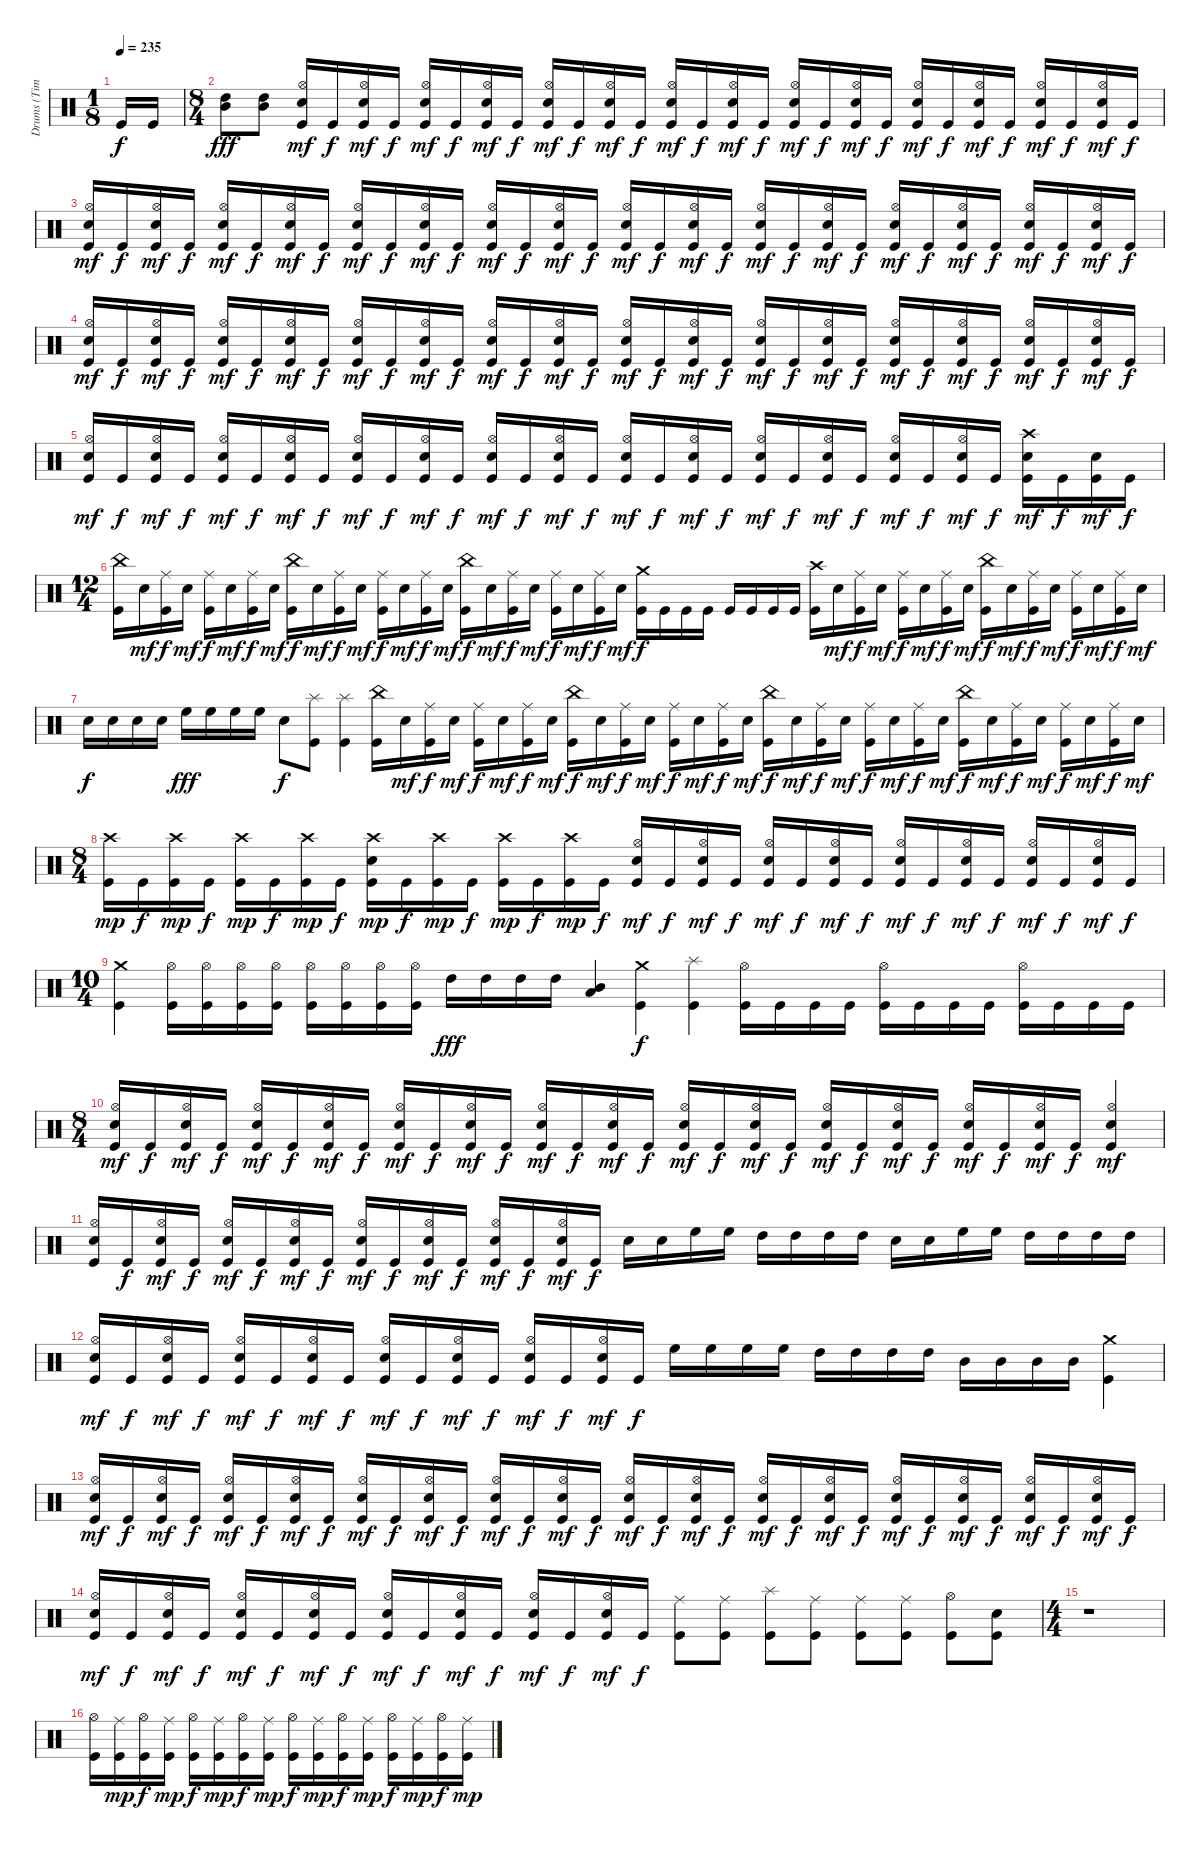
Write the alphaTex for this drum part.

\track ("Drums (Tim Yeung)" "Drums (Tim") {instrument percussion}
\staff {score}
\articulation defaults
\ts (1 8)
\tempo 235
\clef neutral
\ks c "Kick (hit)".16{dy f} "Kick (hit)".16
|
\ts (8 4)
("High Tom (hit)" "Mid Tom (hit)").8{dy fff} ("High Tom (hit)" "Mid Tom (hit)").8 ("Hi-Hat (open)" "Electric Snare (hit)" "Kick (hit)").16{dy mf} "Kick (hit)".16{dy f} ("Hi-Hat (open)" "Electric Snare (hit)" "Kick (hit)").16{dy mf} "Kick (hit)".16{dy f} ("Hi-Hat (open)" "Electric Snare (hit)" "Kick (hit)").16{dy mf} "Kick (hit)".16{dy f} ("Hi-Hat (open)" "Electric Snare (hit)" "Kick (hit)").16{dy mf} "Kick (hit)".16{dy f} ("Hi-Hat (open)" "Electric Snare (hit)" "Kick (hit)").16{dy mf} "Kick (hit)".16{dy f} ("Hi-Hat (open)" "Electric Snare (hit)" "Kick (hit)").16{dy mf} "Kick (hit)".16{dy f} ("Hi-Hat (open)" "Electric Snare (hit)" "Kick (hit)").16{dy mf} "Kick (hit)".16{dy f} ("Hi-Hat (open)" "Electric Snare (hit)" "Kick (hit)").16{dy mf} "Kick (hit)".16{dy f} ("Hi-Hat (open)" "Electric Snare (hit)" "Kick (hit)").16{dy mf} "Kick (hit)".16{dy f} ("Hi-Hat (open)" "Electric Snare (hit)" "Kick (hit)").16{dy mf} "Kick (hit)".16{dy f} ("Hi-Hat (open)" "Electric Snare (hit)" "Kick (hit)").16{dy mf} "Kick (hit)".16{dy f} ("Hi-Hat (open)" "Electric Snare (hit)" "Kick (hit)").16{dy mf} "Kick (hit)".16{dy f} ("Hi-Hat (open)" "Electric Snare (hit)" "Kick (hit)").16{dy mf} "Kick (hit)".16{dy f} ("Hi-Hat (open)" "Electric Snare (hit)" "Kick (hit)").16{dy mf} "Kick (hit)".16{dy f} |
("Hi-Hat (open)" "Electric Snare (hit)" "Kick (hit)").16{dy mf} "Kick (hit)".16{dy f} ("Hi-Hat (open)" "Electric Snare (hit)" "Kick (hit)").16{dy mf} "Kick (hit)".16{dy f} ("Hi-Hat (open)" "Electric Snare (hit)" "Kick (hit)").16{dy mf} "Kick (hit)".16{dy f} ("Hi-Hat (open)" "Electric Snare (hit)" "Kick (hit)").16{dy mf} "Kick (hit)".16{dy f} ("Hi-Hat (open)" "Electric Snare (hit)" "Kick (hit)").16{dy mf} "Kick (hit)".16{dy f} ("Hi-Hat (open)" "Electric Snare (hit)" "Kick (hit)").16{dy mf} "Kick (hit)".16{dy f} ("Hi-Hat (open)" "Electric Snare (hit)" "Kick (hit)").16{dy mf} "Kick (hit)".16{dy f} ("Hi-Hat (open)" "Electric Snare (hit)" "Kick (hit)").16{dy mf} "Kick (hit)".16{dy f} ("Hi-Hat (open)" "Electric Snare (hit)" "Kick (hit)").16{dy mf} "Kick (hit)".16{dy f} ("Hi-Hat (open)" "Electric Snare (hit)" "Kick (hit)").16{dy mf} "Kick (hit)".16{dy f} ("Hi-Hat (open)" "Electric Snare (hit)" "Kick (hit)").16{dy mf} "Kick (hit)".16{dy f} ("Hi-Hat (open)" "Electric Snare (hit)" "Kick (hit)").16{dy mf} "Kick (hit)".16{dy f} ("Hi-Hat (open)" "Electric Snare (hit)" "Kick (hit)").16{dy mf} "Kick (hit)".16{dy f} ("Hi-Hat (open)" "Electric Snare (hit)" "Kick (hit)").16{dy mf} "Kick (hit)".16{dy f} ("Hi-Hat (open)" "Electric Snare (hit)" "Kick (hit)").16{dy mf} "Kick (hit)".16{dy f} ("Hi-Hat (open)" "Electric Snare (hit)" "Kick (hit)").16{dy mf} "Kick (hit)".16{dy f} |
("Hi-Hat (open)" "Electric Snare (hit)" "Kick (hit)").16{dy mf} "Kick (hit)".16{dy f} ("Hi-Hat (open)" "Electric Snare (hit)" "Kick (hit)").16{dy mf} "Kick (hit)".16{dy f} ("Hi-Hat (open)" "Electric Snare (hit)" "Kick (hit)").16{dy mf} "Kick (hit)".16{dy f} ("Hi-Hat (open)" "Electric Snare (hit)" "Kick (hit)").16{dy mf} "Kick (hit)".16{dy f} ("Hi-Hat (open)" "Electric Snare (hit)" "Kick (hit)").16{dy mf} "Kick (hit)".16{dy f} ("Hi-Hat (open)" "Electric Snare (hit)" "Kick (hit)").16{dy mf} "Kick (hit)".16{dy f} ("Hi-Hat (open)" "Electric Snare (hit)" "Kick (hit)").16{dy mf} "Kick (hit)".16{dy f} ("Hi-Hat (open)" "Electric Snare (hit)" "Kick (hit)").16{dy mf} "Kick (hit)".16{dy f} ("Hi-Hat (open)" "Electric Snare (hit)" "Kick (hit)").16{dy mf} "Kick (hit)".16{dy f} ("Hi-Hat (open)" "Electric Snare (hit)" "Kick (hit)").16{dy mf} "Kick (hit)".16{dy f} ("Hi-Hat (open)" "Electric Snare (hit)" "Kick (hit)").16{dy mf} "Kick (hit)".16{dy f} ("Hi-Hat (open)" "Electric Snare (hit)" "Kick (hit)").16{dy mf} "Kick (hit)".16{dy f} ("Hi-Hat (open)" "Electric Snare (hit)" "Kick (hit)").16{dy mf} "Kick (hit)".16{dy f} ("Hi-Hat (open)" "Electric Snare (hit)" "Kick (hit)").16{dy mf} "Kick (hit)".16{dy f} ("Hi-Hat (open)" "Electric Snare (hit)" "Kick (hit)").16{dy mf} "Kick (hit)".16{dy f} ("Hi-Hat (open)" "Electric Snare (hit)" "Kick (hit)").16{dy mf} "Kick (hit)".16{dy f} |
("Hi-Hat (open)" "Electric Snare (hit)" "Kick (hit)").16{dy mf} "Kick (hit)".16{dy f} ("Hi-Hat (open)" "Electric Snare (hit)" "Kick (hit)").16{dy mf} "Kick (hit)".16{dy f} ("Hi-Hat (open)" "Electric Snare (hit)" "Kick (hit)").16{dy mf} "Kick (hit)".16{dy f} ("Hi-Hat (open)" "Electric Snare (hit)" "Kick (hit)").16{dy mf} "Kick (hit)".16{dy f} ("Hi-Hat (open)" "Electric Snare (hit)" "Kick (hit)").16{dy mf} "Kick (hit)".16{dy f} ("Hi-Hat (open)" "Electric Snare (hit)" "Kick (hit)").16{dy mf} "Kick (hit)".16{dy f} ("Hi-Hat (open)" "Electric Snare (hit)" "Kick (hit)").16{dy mf} "Kick (hit)".16{dy f} ("Hi-Hat (open)" "Electric Snare (hit)" "Kick (hit)").16{dy mf} "Kick (hit)".16{dy f} ("Hi-Hat (open)" "Electric Snare (hit)" "Kick (hit)").16{dy mf} "Kick (hit)".16{dy f} ("Hi-Hat (open)" "Electric Snare (hit)" "Kick (hit)").16{dy mf} "Kick (hit)".16{dy f} ("Hi-Hat (open)" "Electric Snare (hit)" "Kick (hit)").16{dy mf} "Kick (hit)".16{dy f} ("Hi-Hat (open)" "Electric Snare (hit)" "Kick (hit)").16{dy mf} "Kick (hit)".16{dy f} ("Hi-Hat (open)" "Electric Snare (hit)" "Kick (hit)").16{dy mf} "Kick (hit)".16{dy f} ("Hi-Hat (open)" "Electric Snare (hit)" "Kick (hit)").16{dy mf} "Kick (hit)".16{dy f} ("Crash high (hit)" "Electric Snare (hit)" "Kick (hit)").16{dy mf} "Kick (hit)".16{dy f} ("Electric Snare (hit)" "Kick (hit)").16{dy mf} "Kick (hit)".16{dy f} |
\ts (12 4)
("China (hit)" "Kick (hit)").16 "Electric Snare (hit)".16{dy mf} ("Ride (middle)" "Kick (hit)").16{dy f} "Electric Snare (hit)".16{dy mf} ("Ride (middle)" "Kick (hit)").16{dy f} "Electric Snare (hit)".16{dy mf} ("Ride (middle)" "Kick (hit)").16{dy f} "Electric Snare (hit)".16{dy mf} ("China (hit)" "Kick (hit)").16{dy f} "Electric Snare (hit)".16{dy mf} ("Ride (middle)" "Kick (hit)").16{dy f} "Electric Snare (hit)".16{dy mf} ("Ride (middle)" "Kick (hit)").16{dy f} "Electric Snare (hit)".16{dy mf} ("Ride (middle)" "Kick (hit)").16{dy f} "Electric Snare (hit)".16{dy mf} ("China (hit)" "Kick (hit)").16{dy f} "Electric Snare (hit)".16{dy mf} ("Ride (middle)" "Kick (hit)").16{dy f} "Electric Snare (hit)".16{dy mf} ("Ride (middle)" "Kick (hit)").16{dy f} "Electric Snare (hit)".16{dy mf} ("Ride (middle)" "Kick (hit)").16{dy f} "Electric Snare (hit)".16{dy mf} ("Crash medium (hit)" "Kick (hit)").16{dy f} "Kick (hit)".16 "Kick (hit)".16 "Kick (hit)".16 "Kick (hit)".16 "Kick (hit)".16 "Kick (hit)".16 "Kick (hit)".16 ("Crash high (hit)" "Kick (hit)").16 "Electric Snare (hit)".16{dy mf} ("Ride (middle)" "Kick (hit)").16{dy f} "Electric Snare (hit)".16{dy mf} ("Ride (middle)" "Kick (hit)").16{dy f} "Electric Snare (hit)".16{dy mf} ("Ride (middle)" "Kick (hit)").16{dy f} "Electric Snare (hit)".16{dy mf} ("China (hit)" "Kick (hit)").16{dy f} "Electric Snare (hit)".16{dy mf} ("Ride (middle)" "Kick (hit)").16{dy f} "Electric Snare (hit)".16{dy mf} ("Ride (middle)" "Kick (hit)").16{dy f} "Electric Snare (hit)".16{dy mf} ("Ride (middle)" "Kick (hit)").16{dy f} "Electric Snare (hit)".16{dy mf} |
"Electric Snare (hit)".16{dy f} "Electric Snare (hit)".16 "Electric Snare (hit)".16 "Electric Snare (hit)".16 "High Floor Tom (hit)".16{dy fff} "High Floor Tom (hit)".16 "High Floor Tom (hit)".16 "High Floor Tom (hit)".16 "Electric Snare (hit)".8{dy f} ("Splash (hit)" "Kick (hit)").8 ("Splash (hit)" "Kick (hit)").4 ("China (hit)" "Kick (hit)").16 "Electric Snare (hit)".16{dy mf} ("Ride (middle)" "Kick (hit)").16{dy f} "Electric Snare (hit)".16{dy mf} ("Ride (middle)" "Kick (hit)").16{dy f} "Electric Snare (hit)".16{dy mf} ("Ride (middle)" "Kick (hit)").16{dy f} "Electric Snare (hit)".16{dy mf} ("China (hit)" "Kick (hit)").16{dy f} "Electric Snare (hit)".16{dy mf} ("Ride (middle)" "Kick (hit)").16{dy f} "Electric Snare (hit)".16{dy mf} ("Ride (middle)" "Kick (hit)").16{dy f} "Electric Snare (hit)".16{dy mf} ("Ride (middle)" "Kick (hit)").16{dy f} "Electric Snare (hit)".16{dy mf} ("China (hit)" "Kick (hit)").16{dy f} "Electric Snare (hit)".16{dy mf} ("Ride (middle)" "Kick (hit)").16{dy f} "Electric Snare (hit)".16{dy mf} ("Ride (middle)" "Kick (hit)").16{dy f} "Electric Snare (hit)".16{dy mf} ("Ride (middle)" "Kick (hit)").16{dy f} "Electric Snare (hit)".16{dy mf} ("China (hit)" "Kick (hit)").16{dy f} "Electric Snare (hit)".16{dy mf} ("Ride (middle)" "Kick (hit)").16{dy f} "Electric Snare (hit)".16{dy mf} ("Ride (middle)" "Kick (hit)").16{dy f} "Electric Snare (hit)".16{dy mf} ("Ride (middle)" "Kick (hit)").16{dy f} "Electric Snare (hit)".16{dy mf} |
\ts (8 4)
("Crash high (hit)" "Kick (hit)").16{dy mp} "Kick (hit)".16{dy f} ("Crash high (hit)" "Kick (hit)").16{dy mp} "Kick (hit)".16{dy f} ("Crash high (hit)" "Kick (hit)").16{dy mp} "Kick (hit)".16{dy f} ("Crash high (hit)" "Kick (hit)").16{dy mp} "Kick (hit)".16{dy f} ("Crash high (hit)" "Electric Snare (hit)" "Kick (hit)").16{dy mp} "Kick (hit)".16{dy f} ("Crash high (hit)" "Kick (hit)").16{dy mp} "Kick (hit)".16{dy f} ("Crash high (hit)" "Kick (hit)").16{dy mp} "Kick (hit)".16{dy f} ("Crash high (hit)" "Kick (hit)").16{dy mp} "Kick (hit)".16{dy f} ("Hi-Hat (open)" "Electric Snare (hit)" "Kick (hit)").16{dy mf} "Kick (hit)".16{dy f} ("Hi-Hat (open)" "Electric Snare (hit)" "Kick (hit)").16{dy mf} "Kick (hit)".16{dy f} ("Hi-Hat (open)" "Electric Snare (hit)" "Kick (hit)").16{dy mf} "Kick (hit)".16{dy f} ("Hi-Hat (open)" "Electric Snare (hit)" "Kick (hit)").16{dy mf} "Kick (hit)".16{dy f} ("Hi-Hat (open)" "Electric Snare (hit)" "Kick (hit)").16{dy mf} "Kick (hit)".16{dy f} ("Hi-Hat (open)" "Electric Snare (hit)" "Kick (hit)").16{dy mf} "Kick (hit)".16{dy f} ("Hi-Hat (open)" "Electric Snare (hit)" "Kick (hit)").16{dy mf} "Kick (hit)".16{dy f} ("Hi-Hat (open)" "Electric Snare (hit)" "Kick (hit)").16{dy mf} "Kick (hit)".16{dy f} |
\ts (10 4)
("Crash medium (hit)" "Kick (hit)").4 ("Hi-Hat (open)" "Kick (hit)").16 ("Hi-Hat (open)" "Kick (hit)").16 ("Hi-Hat (open)" "Kick (hit)").16 ("Hi-Hat (open)" "Kick (hit)").16 ("Hi-Hat (open)" "Kick (hit)").16 ("Hi-Hat (open)" "Kick (hit)").16 ("Hi-Hat (open)" "Kick (hit)").16 ("Hi-Hat (open)" "Kick (hit)").16 "High Tom (hit)".16{dy fff} "High Tom (hit)".16 "High Tom (hit)".16 "High Tom (hit)".16 ("Mid Tom (hit)" "Low Tom (hit)").4 ("Crash medium (hit)" "Kick (hit)").4{dy f} ("Splash (hit)" "Kick (hit)").4 ("Hi-Hat (open)" "Kick (hit)").16 "Kick (hit)".16 "Kick (hit)".16 "Kick (hit)".16 ("Hi-Hat (open)" "Kick (hit)").16 "Kick (hit)".16 "Kick (hit)".16 "Kick (hit)".16 ("Hi-Hat (open)" "Kick (hit)").16 "Kick (hit)".16 "Kick (hit)".16 "Kick (hit)".16 |
\ts (8 4)
("Hi-Hat (open)" "Electric Snare (hit)" "Kick (hit)").16{dy mf} "Kick (hit)".16{dy f} ("Hi-Hat (open)" "Electric Snare (hit)" "Kick (hit)").16{dy mf} "Kick (hit)".16{dy f} ("Hi-Hat (open)" "Electric Snare (hit)" "Kick (hit)").16{dy mf} "Kick (hit)".16{dy f} ("Hi-Hat (open)" "Electric Snare (hit)" "Kick (hit)").16{dy mf} "Kick (hit)".16{dy f} ("Hi-Hat (open)" "Electric Snare (hit)" "Kick (hit)").16{dy mf} "Kick (hit)".16{dy f} ("Hi-Hat (open)" "Electric Snare (hit)" "Kick (hit)").16{dy mf} "Kick (hit)".16{dy f} ("Hi-Hat (open)" "Electric Snare (hit)" "Kick (hit)").16{dy mf} "Kick (hit)".16{dy f} ("Hi-Hat (open)" "Electric Snare (hit)" "Kick (hit)").16{dy mf} "Kick (hit)".16{dy f} ("Hi-Hat (open)" "Electric Snare (hit)" "Kick (hit)").16{dy mf} "Kick (hit)".16{dy f} ("Hi-Hat (open)" "Electric Snare (hit)" "Kick (hit)").16{dy mf} "Kick (hit)".16{dy f} ("Hi-Hat (open)" "Electric Snare (hit)" "Kick (hit)").16{dy mf} "Kick (hit)".16{dy f} ("Hi-Hat (open)" "Electric Snare (hit)" "Kick (hit)").16{dy mf} "Kick (hit)".16{dy f} ("Hi-Hat (open)" "Electric Snare (hit)" "Kick (hit)").16{dy mf} "Kick (hit)".16{dy f} ("Hi-Hat (open)" "Electric Snare (hit)" "Kick (hit)").16{dy mf} "Kick (hit)".16{dy f} ("Hi-Hat (open)" "Electric Snare (hit)" "Kick (hit)").4{dy mf} |
("Hi-Hat (open)" "Electric Snare (hit)" "Kick (hit)").16 "Kick (hit)".16{dy f} ("Hi-Hat (open)" "Electric Snare (hit)" "Kick (hit)").16{dy mf} "Kick (hit)".16{dy f} ("Hi-Hat (open)" "Electric Snare (hit)" "Kick (hit)").16{dy mf} "Kick (hit)".16{dy f} ("Hi-Hat (open)" "Electric Snare (hit)" "Kick (hit)").16{dy mf} "Kick (hit)".16{dy f} ("Hi-Hat (open)" "Electric Snare (hit)" "Kick (hit)").16{dy mf} "Kick (hit)".16{dy f} ("Hi-Hat (open)" "Electric Snare (hit)" "Kick (hit)").16{dy mf} "Kick (hit)".16{dy f} ("Hi-Hat (open)" "Electric Snare (hit)" "Kick (hit)").16{dy mf} "Kick (hit)".16{dy f} ("Hi-Hat (open)" "Electric Snare (hit)" "Kick (hit)").16{dy mf} "Kick (hit)".16{dy f} "Electric Snare (hit)".16 "Electric Snare (hit)".16 "High Floor Tom (hit)".16 "High Floor Tom (hit)".16 "High Tom (hit)".16 "High Tom (hit)".16 "High Tom (hit)".16 "High Tom (hit)".16 "Electric Snare (hit)".16 "Electric Snare (hit)".16 "High Floor Tom (hit)".16 "High Floor Tom (hit)".16 "High Tom (hit)".16 "High Tom (hit)".16 "High Tom (hit)".16 "High Tom (hit)".16 |
("Hi-Hat (open)" "Electric Snare (hit)" "Kick (hit)").16{dy mf} "Kick (hit)".16{dy f} ("Hi-Hat (open)" "Electric Snare (hit)" "Kick (hit)").16{dy mf} "Kick (hit)".16{dy f} ("Hi-Hat (open)" "Electric Snare (hit)" "Kick (hit)").16{dy mf} "Kick (hit)".16{dy f} ("Hi-Hat (open)" "Electric Snare (hit)" "Kick (hit)").16{dy mf} "Kick (hit)".16{dy f} ("Hi-Hat (open)" "Electric Snare (hit)" "Kick (hit)").16{dy mf} "Kick (hit)".16{dy f} ("Hi-Hat (open)" "Electric Snare (hit)" "Kick (hit)").16{dy mf} "Kick (hit)".16{dy f} ("Hi-Hat (open)" "Electric Snare (hit)" "Kick (hit)").16{dy mf} "Kick (hit)".16{dy f} ("Hi-Hat (open)" "Electric Snare (hit)" "Kick (hit)").16{dy mf} "Kick (hit)".16{dy f} "High Floor Tom (hit)".16 "High Floor Tom (hit)".16 "High Floor Tom (hit)".16 "High Floor Tom (hit)".16 "High Tom (hit)".16 "High Tom (hit)".16 "High Tom (hit)".16 "High Tom (hit)".16 "Mid Tom (hit)".16 "Mid Tom (hit)".16 "Mid Tom (hit)".16 "Mid Tom (hit)".16 ("Crash medium (hit)" "Kick (hit)").4 |
("Hi-Hat (open)" "Electric Snare (hit)" "Kick (hit)").16{dy mf} "Kick (hit)".16{dy f} ("Hi-Hat (open)" "Electric Snare (hit)" "Kick (hit)").16{dy mf} "Kick (hit)".16{dy f} ("Hi-Hat (open)" "Electric Snare (hit)" "Kick (hit)").16{dy mf} "Kick (hit)".16{dy f} ("Hi-Hat (open)" "Electric Snare (hit)" "Kick (hit)").16{dy mf} "Kick (hit)".16{dy f} ("Hi-Hat (open)" "Electric Snare (hit)" "Kick (hit)").16{dy mf} "Kick (hit)".16{dy f} ("Hi-Hat (open)" "Electric Snare (hit)" "Kick (hit)").16{dy mf} "Kick (hit)".16{dy f} ("Hi-Hat (open)" "Electric Snare (hit)" "Kick (hit)").16{dy mf} "Kick (hit)".16{dy f} ("Hi-Hat (open)" "Electric Snare (hit)" "Kick (hit)").16{dy mf} "Kick (hit)".16{dy f} ("Hi-Hat (open)" "Electric Snare (hit)" "Kick (hit)").16{dy mf} "Kick (hit)".16{dy f} ("Hi-Hat (open)" "Electric Snare (hit)" "Kick (hit)").16{dy mf} "Kick (hit)".16{dy f} ("Hi-Hat (open)" "Electric Snare (hit)" "Kick (hit)").16{dy mf} "Kick (hit)".16{dy f} ("Hi-Hat (open)" "Electric Snare (hit)" "Kick (hit)").16{dy mf} "Kick (hit)".16{dy f} ("Hi-Hat (open)" "Electric Snare (hit)" "Kick (hit)").16{dy mf} "Kick (hit)".16{dy f} ("Hi-Hat (open)" "Electric Snare (hit)" "Kick (hit)").16{dy mf} "Kick (hit)".16{dy f} ("Hi-Hat (open)" "Electric Snare (hit)" "Kick (hit)").16{dy mf} "Kick (hit)".16{dy f} ("Hi-Hat (open)" "Electric Snare (hit)" "Kick (hit)").16{dy mf} "Kick (hit)".16{dy f} |
("Hi-Hat (open)" "Electric Snare (hit)" "Kick (hit)").16{dy mf} "Kick (hit)".16{dy f} ("Hi-Hat (open)" "Electric Snare (hit)" "Kick (hit)").16{dy mf} "Kick (hit)".16{dy f} ("Hi-Hat (open)" "Electric Snare (hit)" "Kick (hit)").16{dy mf} "Kick (hit)".16{dy f} ("Hi-Hat (open)" "Electric Snare (hit)" "Kick (hit)").16{dy mf} "Kick (hit)".16{dy f} ("Hi-Hat (open)" "Electric Snare (hit)" "Kick (hit)").16{dy mf} "Kick (hit)".16{dy f} ("Hi-Hat (open)" "Electric Snare (hit)" "Kick (hit)").16{dy mf} "Kick (hit)".16{dy f} ("Hi-Hat (open)" "Electric Snare (hit)" "Kick (hit)").16{dy mf} "Kick (hit)".16{dy f} ("Hi-Hat (open)" "Electric Snare (hit)" "Kick (hit)").16{dy mf} "Kick (hit)".16{dy f} ("Ride (middle)" "Kick (hit)").8 ("Ride (middle)" "Kick (hit)").8 ("Splash (hit)" "Kick (hit)").8 ("Ride (middle)" "Kick (hit)").8 ("Ride (middle)" "Kick (hit)").8 ("Ride (middle)" "Kick (hit)").8 ("Hi-Hat (open)" "Kick (hit)").8 ("Electric Snare (hit)" "Kick (hit)").8 |
\ts (4 4)
r.1 |
("Hi-Hat (open)" "Kick (hit)").16 ("Ride (middle)" "Kick (hit)").16{dy mp} ("Hi-Hat (open)" "Kick (hit)").16{dy f} ("Ride (middle)" "Kick (hit)").16{dy mp} ("Hi-Hat (open)" "Kick (hit)").16{dy f} ("Ride (middle)" "Kick (hit)").16{dy mp} ("Hi-Hat (open)" "Kick (hit)").16{dy f} ("Ride (middle)" "Kick (hit)").16{dy mp} ("Hi-Hat (open)" "Kick (hit)").16{dy f} ("Ride (middle)" "Kick (hit)").16{dy mp} ("Hi-Hat (open)" "Kick (hit)").16{dy f} ("Ride (middle)" "Kick (hit)").16{dy mp} ("Hi-Hat (open)" "Kick (hit)").16{dy f} ("Ride (middle)" "Kick (hit)").16{dy mp} ("Hi-Hat (open)" "Kick (hit)").16{dy f} ("Ride (middle)" "Kick (hit)").16{dy mp}
